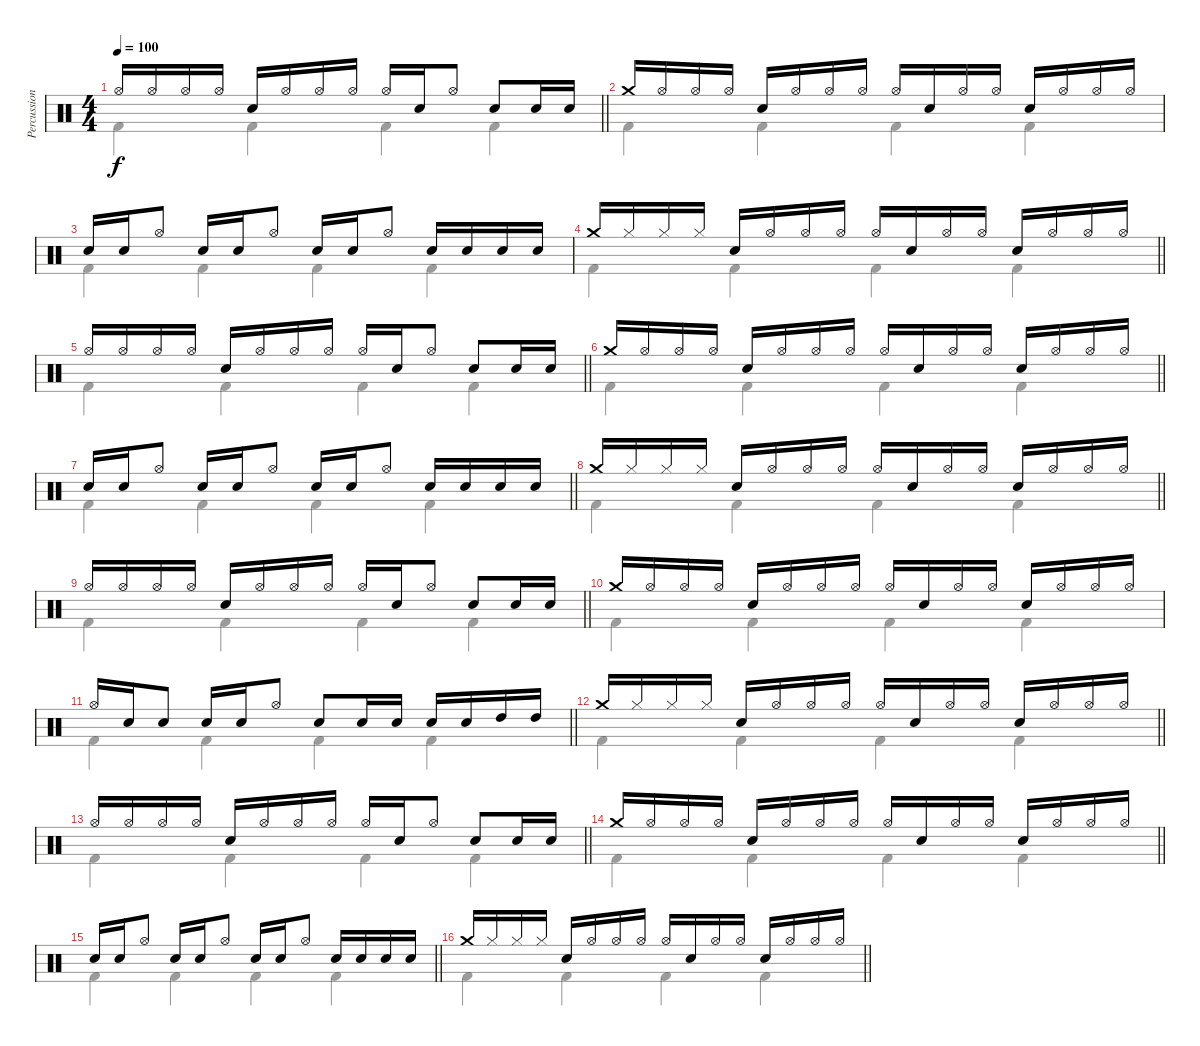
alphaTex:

\track ("Percussion" "Percussion") {instrument percussion}
\staff {score}
\articulation defaults
\voice
\ts (4 4)
\tempo 100
\clef neutral
\barLineRight lightlight
\ks c "Hi-Hat (open)".16{dy f} "Hi-Hat (open)".16 "Hi-Hat (open)".16 "Hi-Hat (open)".16 "Snare (hit) 2".16 "Hi-Hat (open)".16 "Hi-Hat (open)".16 "Hi-Hat (open)".16 "Hi-Hat (open)".16 "Snare (hit) 2".16 "Hi-Hat (open)".8 "Snare (hit) 2".8 "Snare (hit) 2".16 "Snare (hit) 2".16
|
"Crash medium (hit)".16 "Hi-Hat (open)".16 "Hi-Hat (open)".16 "Hi-Hat (open)".16 "Snare (hit) 2".16 "Hi-Hat (open)".16 "Hi-Hat (open)".16 "Hi-Hat (open)".16 "Hi-Hat (open)".16 "Snare (hit) 2".16 "Hi-Hat (open)".16 "Hi-Hat (open)".16 "Snare (hit) 2".16 "Hi-Hat (open)".16 "Hi-Hat (open)".16 "Hi-Hat (open)".16 |
"Snare (hit) 2".16 "Snare (hit) 2".16 "Hi-Hat (open)".8 "Snare (hit) 2".16 "Snare (hit) 2".16 "Hi-Hat (open)".8 "Snare (hit) 2".16 "Snare (hit) 2".16 "Hi-Hat (open)".8 "Snare (hit) 2".16 "Snare (hit) 2".16 "Snare (hit) 2".16 "Snare (hit) 2".16 |
\barLineRight lightlight "Crash medium (hit)".16 "Hi-Hat (closed)".16 "Hi-Hat (closed)".16 "Hi-Hat (closed)".16 "Snare (hit) 2".16 "Hi-Hat (open)".16 "Hi-Hat (open)".16 "Hi-Hat (open)".16 "Hi-Hat (open)".16 "Snare (hit) 2".16 "Hi-Hat (open)".16 "Hi-Hat (open)".16 "Snare (hit) 2".16 "Hi-Hat (open)".16 "Hi-Hat (open)".16 "Hi-Hat (open)".16
|
\barLineRight lightlight "Hi-Hat (open)".16 "Hi-Hat (open)".16 "Hi-Hat (open)".16 "Hi-Hat (open)".16 "Snare (hit) 2".16 "Hi-Hat (open)".16 "Hi-Hat (open)".16 "Hi-Hat (open)".16 "Hi-Hat (open)".16 "Snare (hit) 2".16 "Hi-Hat (open)".8 "Snare (hit) 2".8 "Snare (hit) 2".16 "Snare (hit) 2".16
|
\barLineRight lightlight "Crash medium (hit)".16 "Hi-Hat (open)".16 "Hi-Hat (open)".16 "Hi-Hat (open)".16 "Snare (hit) 2".16 "Hi-Hat (open)".16 "Hi-Hat (open)".16 "Hi-Hat (open)".16 "Hi-Hat (open)".16 "Snare (hit) 2".16 "Hi-Hat (open)".16 "Hi-Hat (open)".16 "Snare (hit) 2".16 "Hi-Hat (open)".16 "Hi-Hat (open)".16 "Hi-Hat (open)".16
|
\barLineRight lightlight "Snare (hit) 2".16 "Snare (hit) 2".16 "Hi-Hat (open)".8 "Snare (hit) 2".16 "Snare (hit) 2".16 "Hi-Hat (open)".8 "Snare (hit) 2".16 "Snare (hit) 2".16 "Hi-Hat (open)".8 "Snare (hit) 2".16 "Snare (hit) 2".16 "Snare (hit) 2".16 "Snare (hit) 2".16
|
\barLineRight lightlight "Crash medium (hit)".16 "Hi-Hat (closed)".16 "Hi-Hat (closed)".16 "Hi-Hat (closed)".16 "Snare (hit) 2".16 "Hi-Hat (open)".16 "Hi-Hat (open)".16 "Hi-Hat (open)".16 "Hi-Hat (open)".16 "Snare (hit) 2".16 "Hi-Hat (open)".16 "Hi-Hat (open)".16 "Snare (hit) 2".16 "Hi-Hat (open)".16 "Hi-Hat (open)".16 "Hi-Hat (open)".16
|
\barLineRight lightlight "Hi-Hat (open)".16 "Hi-Hat (open)".16 "Hi-Hat (open)".16 "Hi-Hat (open)".16 "Snare (hit) 2".16 "Hi-Hat (open)".16 "Hi-Hat (open)".16 "Hi-Hat (open)".16 "Hi-Hat (open)".16 "Snare (hit) 2".16 "Hi-Hat (open)".8 "Snare (hit) 2".8 "Snare (hit) 2".16 "Snare (hit) 2".16
|
"Crash medium (hit)".16 "Hi-Hat (open)".16 "Hi-Hat (open)".16 "Hi-Hat (open)".16 "Snare (hit) 2".16 "Hi-Hat (open)".16 "Hi-Hat (open)".16 "Hi-Hat (open)".16 "Hi-Hat (open)".16 "Snare (hit) 2".16 "Hi-Hat (open)".16 "Hi-Hat (open)".16 "Snare (hit) 2".16 "Hi-Hat (open)".16 "Hi-Hat (open)".16 "Hi-Hat (open)".16 |
\barLineRight lightlight "Hi-Hat (open)".16 "Snare (hit) 2".16 "Snare (hit) 2".8 "Snare (hit) 2".16 "Snare (hit) 2".16 "Hi-Hat (open)".8 "Snare (hit) 2".8 "Snare (hit) 2".16 "Snare (hit) 2".16 "Snare (hit) 2".16 "Snare (hit) 2".16 "High Tom (hit)".16 "High Tom (hit)".16
|
\barLineRight lightlight "Crash medium (hit)".16 "Hi-Hat (closed)".16 "Hi-Hat (closed)".16 "Hi-Hat (closed)".16 "Snare (hit) 2".16 "Hi-Hat (open)".16 "Hi-Hat (open)".16 "Hi-Hat (open)".16 "Hi-Hat (open)".16 "Snare (hit) 2".16 "Hi-Hat (open)".16 "Hi-Hat (open)".16 "Snare (hit) 2".16 "Hi-Hat (open)".16 "Hi-Hat (open)".16 "Hi-Hat (open)".16
|
\barLineRight lightlight "Hi-Hat (open)".16 "Hi-Hat (open)".16 "Hi-Hat (open)".16 "Hi-Hat (open)".16 "Snare (hit) 2".16 "Hi-Hat (open)".16 "Hi-Hat (open)".16 "Hi-Hat (open)".16 "Hi-Hat (open)".16 "Snare (hit) 2".16 "Hi-Hat (open)".8 "Snare (hit) 2".8 "Snare (hit) 2".16 "Snare (hit) 2".16
|
\barLineRight lightlight "Crash medium (hit)".16 "Hi-Hat (open)".16 "Hi-Hat (open)".16 "Hi-Hat (open)".16 "Snare (hit) 2".16 "Hi-Hat (open)".16 "Hi-Hat (open)".16 "Hi-Hat (open)".16 "Hi-Hat (open)".16 "Snare (hit) 2".16 "Hi-Hat (open)".16 "Hi-Hat (open)".16 "Snare (hit) 2".16 "Hi-Hat (open)".16 "Hi-Hat (open)".16 "Hi-Hat (open)".16
|
\barLineRight lightlight "Snare (hit) 2".16 "Snare (hit) 2".16 "Hi-Hat (open)".8 "Snare (hit) 2".16 "Snare (hit) 2".16 "Hi-Hat (open)".8 "Snare (hit) 2".16 "Snare (hit) 2".16 "Hi-Hat (open)".8 "Snare (hit) 2".16 "Snare (hit) 2".16 "Snare (hit) 2".16 "Snare (hit) 2".16
|
\barLineRight lightlight "Crash medium (hit)".16 "Hi-Hat (closed)".16 "Hi-Hat (closed)".16 "Hi-Hat (closed)".16 "Snare (hit) 2".16 "Hi-Hat (open)".16 "Hi-Hat (open)".16 "Hi-Hat (open)".16 "Hi-Hat (open)".16 "Snare (hit) 2".16 "Hi-Hat (open)".16 "Hi-Hat (open)".16 "Snare (hit) 2".16 "Hi-Hat (open)".16 "Hi-Hat (open)".16 "Hi-Hat (open)".16
\voice
\clef neutral
\ottava regular
\simile none
\barLineRight lightlight
\ks c "Kick (hit) 2".4{dy f} "Kick (hit) 2".4 "Kick (hit) 2".4 "Kick (hit) 2".4
|
"Kick (hit) 2".4 "Kick (hit) 2".4 "Kick (hit) 2".4 "Kick (hit) 2".4 |
"Kick (hit) 2".4 "Kick (hit) 2".4 "Kick (hit) 2".4 "Kick (hit) 2".4 |
\barLineRight lightlight "Kick (hit) 2".4 "Kick (hit) 2".4 "Kick (hit) 2".4 "Kick (hit) 2".4
|
\barLineRight lightlight "Kick (hit) 2".4 "Kick (hit) 2".4 "Kick (hit) 2".4 "Kick (hit) 2".4
|
\barLineRight lightlight "Kick (hit) 2".4 "Kick (hit) 2".4 "Kick (hit) 2".4 "Kick (hit) 2".4
|
\barLineRight lightlight "Kick (hit) 2".4 "Kick (hit) 2".4 "Kick (hit) 2".4 "Kick (hit) 2".4
|
\barLineRight lightlight "Kick (hit) 2".4 "Kick (hit) 2".4 "Kick (hit) 2".4 "Kick (hit) 2".4
|
\barLineRight lightlight "Kick (hit) 2".4 "Kick (hit) 2".4 "Kick (hit) 2".4 "Kick (hit) 2".4
|
"Kick (hit) 2".4 "Kick (hit) 2".4 "Kick (hit) 2".4 "Kick (hit) 2".4 |
\barLineRight lightlight "Kick (hit) 2".4 "Kick (hit) 2".4 "Kick (hit) 2".4 "Kick (hit) 2".4
|
\barLineRight lightlight "Kick (hit) 2".4 "Kick (hit) 2".4 "Kick (hit) 2".4 "Kick (hit) 2".4
|
\barLineRight lightlight "Kick (hit) 2".4 "Kick (hit) 2".4 "Kick (hit) 2".4 "Kick (hit) 2".4
|
\barLineRight lightlight "Kick (hit) 2".4 "Kick (hit) 2".4 "Kick (hit) 2".4 "Kick (hit) 2".4
|
\barLineRight lightlight "Kick (hit) 2".4 "Kick (hit) 2".4 "Kick (hit) 2".4 "Kick (hit) 2".4
|
\barLineRight lightlight "Kick (hit) 2".4 "Kick (hit) 2".4 "Kick (hit) 2".4 "Kick (hit) 2".4
